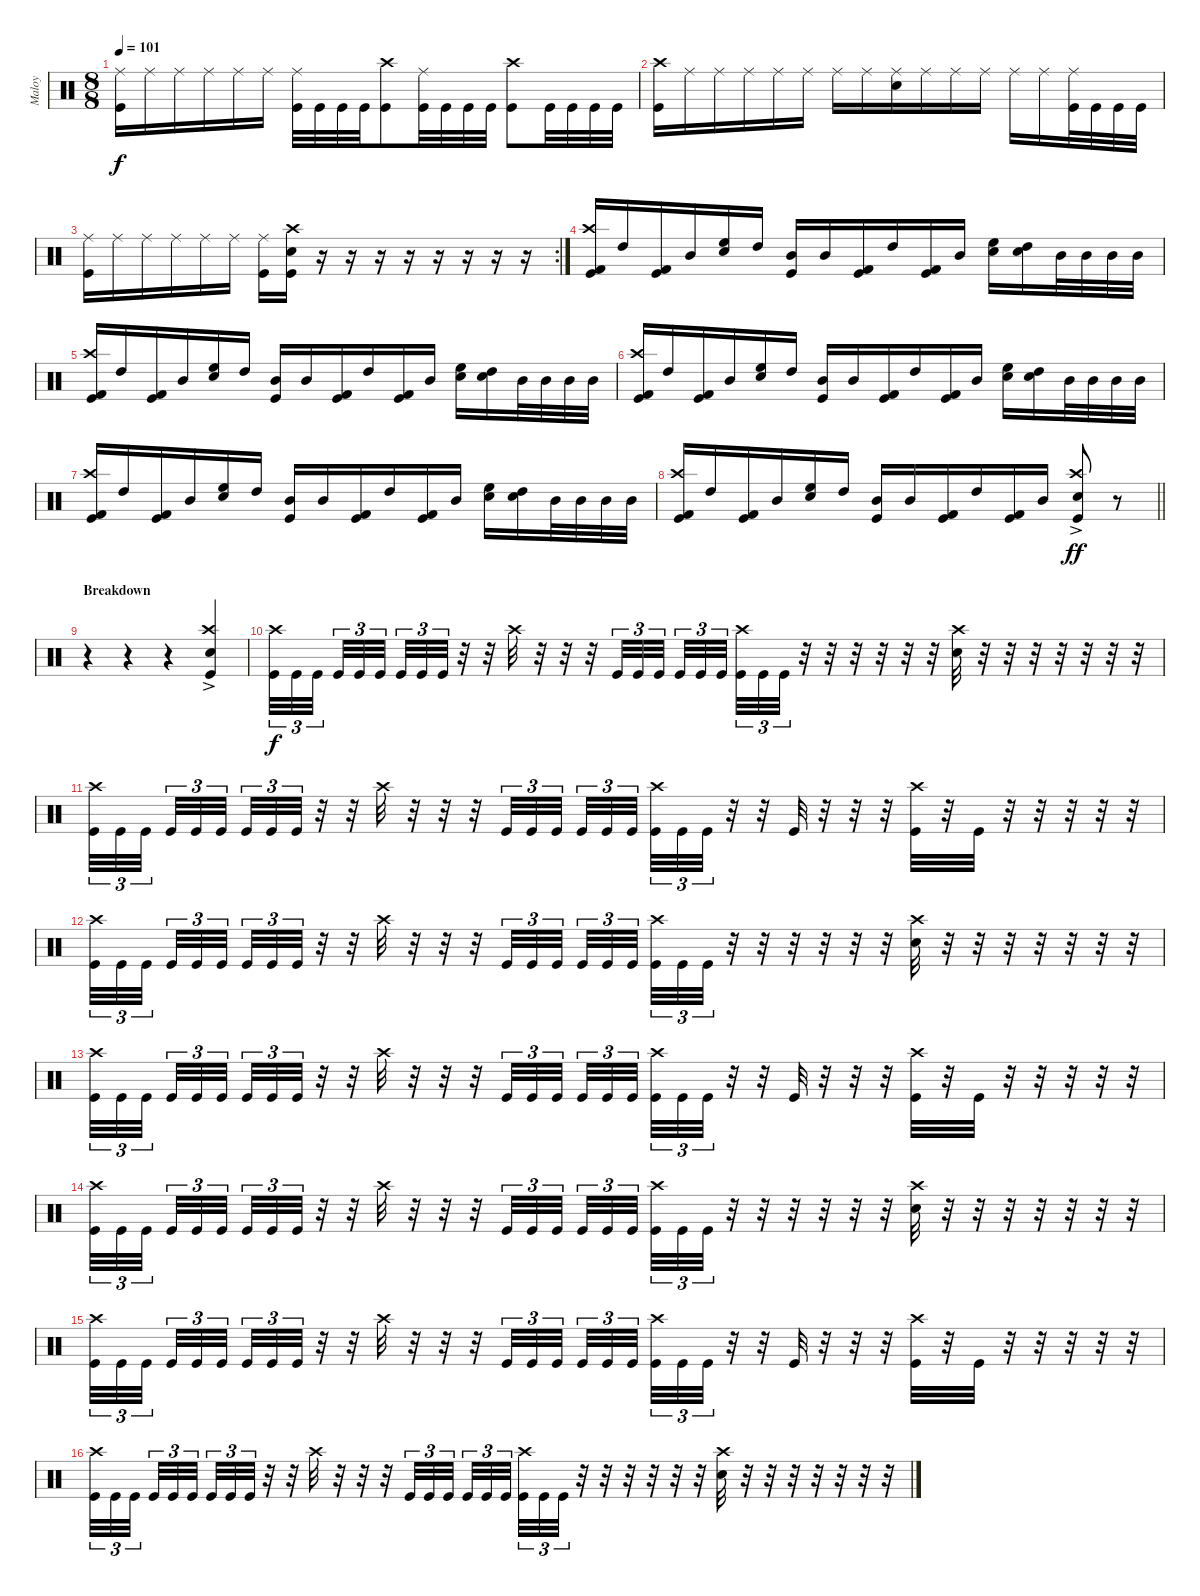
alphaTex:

\track ("Maloy" "Maloy") {instrument percussion}
\staff {score}
\articulation defaults
\ts (8 8)
\tempo 101
\clef neutral
\ks c
("Ride (middle)" "Kick (hit)").16{dy f} "Ride (middle)".16 "Ride (middle)".16 "Ride (middle)".16 "Ride (middle)".16 "Ride (middle)".16 ("Ride (middle)" "Kick (hit)").32 "Kick (hit)".32 "Kick (hit)".32 "Kick (hit)".32 ("Crash high (hit)" "Kick (hit)").8 ("Ride (middle)" "Kick (hit)").32 "Kick (hit)".32 "Kick (hit)".32 "Kick (hit)".32 ("Crash high (hit)" "Kick (hit)").8 "Kick (hit)".32 "Kick (hit)".32 "Kick (hit)".32 "Kick (hit)".32 |
("Crash high (hit)" "Kick (hit)").16 "Ride (middle)".16 "Ride (middle)".16 "Ride (middle)".16 "Ride (middle)".16 "Ride (middle)".16 "Ride (middle)".16 "Ride (middle)".16 ("Ride (middle)" "Snare (hit) 2").16 "Ride (middle)".16 "Ride (middle)".16 "Ride (middle)".16 "Ride (middle)".16 "Ride (middle)".16 ("Ride (middle)" "Kick (hit)").32 "Kick (hit)".32 "Kick (hit)".32 "Kick (hit)".32 |
\rc 2
("Ride (middle)" "Kick (hit)").16 "Ride (middle)".16 "Ride (middle)".16 "Ride (middle)".16 "Ride (middle)".16 "Ride (middle)".16 ("Ride (middle)" "Kick (hit)").16 ("Crash high (hit)" "Snare (hit) 2" "Kick (hit)").16 r.16 r.16 r.16 r.16 r.16 r.16 r.16 r.16 |
("Crash high (hit)" "Kick (hit)" "Kick (hit) 2").16 "High Tom (hit)".16 ("Kick (hit)" "Kick (hit) 2").16 "Mid Tom (hit)".16 ("Electric Snare (hit)" "High Floor Tom (hit)").16 "High Tom (hit)".16 ("Kick (hit)" "Mid Tom (hit)").16 "Mid Tom (hit)".16 ("Kick (hit)" "Kick (hit) 2").16 "High Tom (hit)".16 ("Kick (hit)" "Kick (hit) 2").16 "Mid Tom (hit)".16 ("Electric Snare (hit)" "High Floor Tom (hit)").16 ("Electric Snare (hit)" "High Tom (hit)").16 "Mid Tom (hit)".32 "Mid Tom (hit)".32 "Mid Tom (hit)".32 "Mid Tom (hit)".32 |
("Crash high (hit)" "Kick (hit)" "Kick (hit) 2").16 "High Tom (hit)".16 ("Kick (hit)" "Kick (hit) 2").16 "Mid Tom (hit)".16 ("Electric Snare (hit)" "High Floor Tom (hit)").16 "High Tom (hit)".16 ("Kick (hit)" "Mid Tom (hit)").16 "Mid Tom (hit)".16 ("Kick (hit)" "Kick (hit) 2").16 "High Tom (hit)".16 ("Kick (hit)" "Kick (hit) 2").16 "Mid Tom (hit)".16 ("Electric Snare (hit)" "High Floor Tom (hit)").16 ("Electric Snare (hit)" "High Tom (hit)").16 "Mid Tom (hit)".32 "Mid Tom (hit)".32 "Mid Tom (hit)".32 "Mid Tom (hit)".32 |
("Crash high (hit)" "Kick (hit)" "Kick (hit) 2").16 "High Tom (hit)".16 ("Kick (hit)" "Kick (hit) 2").16 "Mid Tom (hit)".16 ("Electric Snare (hit)" "High Floor Tom (hit)").16 "High Tom (hit)".16 ("Kick (hit)" "Mid Tom (hit)").16 "Mid Tom (hit)".16 ("Kick (hit)" "Kick (hit) 2").16 "High Tom (hit)".16 ("Kick (hit)" "Kick (hit) 2").16 "Mid Tom (hit)".16 ("Electric Snare (hit)" "High Floor Tom (hit)").16 ("Electric Snare (hit)" "High Tom (hit)").16 "Mid Tom (hit)".32 "Mid Tom (hit)".32 "Mid Tom (hit)".32 "Mid Tom (hit)".32 |
("Crash high (hit)" "Kick (hit)" "Kick (hit) 2").16 "High Tom (hit)".16 ("Kick (hit)" "Kick (hit) 2").16 "Mid Tom (hit)".16 ("Electric Snare (hit)" "High Floor Tom (hit)").16 "High Tom (hit)".16 ("Kick (hit)" "Mid Tom (hit)").16 "Mid Tom (hit)".16 ("Kick (hit)" "Kick (hit) 2").16 "High Tom (hit)".16 ("Kick (hit)" "Kick (hit) 2").16 "Mid Tom (hit)".16 ("Electric Snare (hit)" "High Floor Tom (hit)").16 ("Electric Snare (hit)" "High Tom (hit)").16 "Mid Tom (hit)".32 "Mid Tom (hit)".32 "Mid Tom (hit)".32 "Mid Tom (hit)".32 |
\barLineRight lightlight
("Crash high (hit)" "Kick (hit)" "Kick (hit) 2").16 "High Tom (hit)".16 ("Kick (hit)" "Kick (hit) 2").16 "Mid Tom (hit)".16 ("Electric Snare (hit)" "High Floor Tom (hit)").16 "High Tom (hit)".16 ("Kick (hit)" "Mid Tom (hit)").16 "Mid Tom (hit)".16 ("Kick (hit)" "Kick (hit) 2").16 "High Tom (hit)".16 ("Kick (hit)" "Kick (hit) 2").16 "Mid Tom (hit)".16 ("Kick (hit)" "Electric Snare (hit)" "Crash high (hit)"{ac}).8{dy ff} r.8 |
\section ("" "Breakdown")
r.4 r.4 r.4 ("Kick (hit)" "Electric Snare (hit)" "Crash high (hit)"{ac}).4 |
("Crash high (hit)" "Kick (hit)").32{tu (3 2) dy f} "Kick (hit)".32{tu (3 2)} "Kick (hit)".32{tu (3 2) beam splitsecondary} "Kick (hit)".32{tu (3 2)} "Kick (hit)".32{tu (3 2)} "Kick (hit)".32{tu (3 2)} "Kick (hit)".32{tu (3 2)} "Kick (hit)".32{tu (3 2)} "Kick (hit)".32{tu (3 2)} r.32 r.32 "Crash high (hit)".32 r.32 r.32 r.32 "Kick (hit)".32{tu (3 2)} "Kick (hit)".32{tu (3 2)} "Kick (hit)".32{tu (3 2) beam splitsecondary} "Kick (hit)".32{tu (3 2)} "Kick (hit)".32{tu (3 2)} "Kick (hit)".32{tu (3 2)} ("Crash high (hit)" "Kick (hit)").32{tu (3 2)} "Kick (hit)".32{tu (3 2)} "Kick (hit)".32{tu (3 2)} r.32 r.32 r.32 r.32 r.32 r.32 ("Crash high (hit)" "Electric Snare (hit)").32 r.32 r.32 r.32 r.32 r.32 r.32 r.32 |
("Crash high (hit)" "Kick (hit)").32{tu (3 2)} "Kick (hit)".32{tu (3 2)} "Kick (hit)".32{tu (3 2) beam splitsecondary} "Kick (hit)".32{tu (3 2)} "Kick (hit)".32{tu (3 2)} "Kick (hit)".32{tu (3 2)} "Kick (hit)".32{tu (3 2)} "Kick (hit)".32{tu (3 2)} "Kick (hit)".32{tu (3 2)} r.32 r.32 "Crash high (hit)".32 r.32 r.32 r.32 "Kick (hit)".32{tu (3 2)} "Kick (hit)".32{tu (3 2)} "Kick (hit)".32{tu (3 2) beam splitsecondary} "Kick (hit)".32{tu (3 2)} "Kick (hit)".32{tu (3 2)} "Kick (hit)".32{tu (3 2)} ("Crash high (hit)" "Kick (hit)").32{tu (3 2)} "Kick (hit)".32{tu (3 2)} "Kick (hit)".32{tu (3 2)} r.32 r.32 "Kick (hit)".32 r.32 r.32 r.32 ("Crash high (hit)" "Kick (hit)").32 r.32 "Kick (hit)".32 r.32 r.32 r.32 r.32 r.32 |
("Crash high (hit)" "Kick (hit)").32{tu (3 2)} "Kick (hit)".32{tu (3 2)} "Kick (hit)".32{tu (3 2) beam splitsecondary} "Kick (hit)".32{tu (3 2)} "Kick (hit)".32{tu (3 2)} "Kick (hit)".32{tu (3 2)} "Kick (hit)".32{tu (3 2)} "Kick (hit)".32{tu (3 2)} "Kick (hit)".32{tu (3 2)} r.32 r.32 "Crash high (hit)".32 r.32 r.32 r.32 "Kick (hit)".32{tu (3 2)} "Kick (hit)".32{tu (3 2)} "Kick (hit)".32{tu (3 2) beam splitsecondary} "Kick (hit)".32{tu (3 2)} "Kick (hit)".32{tu (3 2)} "Kick (hit)".32{tu (3 2)} ("Crash high (hit)" "Kick (hit)").32{tu (3 2)} "Kick (hit)".32{tu (3 2)} "Kick (hit)".32{tu (3 2)} r.32 r.32 r.32 r.32 r.32 r.32 ("Crash high (hit)" "Electric Snare (hit)").32 r.32 r.32 r.32 r.32 r.32 r.32 r.32 |
("Crash high (hit)" "Kick (hit)").32{tu (3 2)} "Kick (hit)".32{tu (3 2)} "Kick (hit)".32{tu (3 2) beam splitsecondary} "Kick (hit)".32{tu (3 2)} "Kick (hit)".32{tu (3 2)} "Kick (hit)".32{tu (3 2)} "Kick (hit)".32{tu (3 2)} "Kick (hit)".32{tu (3 2)} "Kick (hit)".32{tu (3 2)} r.32 r.32 "Crash high (hit)".32 r.32 r.32 r.32 "Kick (hit)".32{tu (3 2)} "Kick (hit)".32{tu (3 2)} "Kick (hit)".32{tu (3 2) beam splitsecondary} "Kick (hit)".32{tu (3 2)} "Kick (hit)".32{tu (3 2)} "Kick (hit)".32{tu (3 2)} ("Crash high (hit)" "Kick (hit)").32{tu (3 2)} "Kick (hit)".32{tu (3 2)} "Kick (hit)".32{tu (3 2)} r.32 r.32 "Kick (hit)".32 r.32 r.32 r.32 ("Crash high (hit)" "Kick (hit)").32 r.32 "Kick (hit)".32 r.32 r.32 r.32 r.32 r.32 |
("Crash high (hit)" "Kick (hit)").32{tu (3 2)} "Kick (hit)".32{tu (3 2)} "Kick (hit)".32{tu (3 2) beam splitsecondary} "Kick (hit)".32{tu (3 2)} "Kick (hit)".32{tu (3 2)} "Kick (hit)".32{tu (3 2)} "Kick (hit)".32{tu (3 2)} "Kick (hit)".32{tu (3 2)} "Kick (hit)".32{tu (3 2)} r.32 r.32 "Crash high (hit)".32 r.32 r.32 r.32 "Kick (hit)".32{tu (3 2)} "Kick (hit)".32{tu (3 2)} "Kick (hit)".32{tu (3 2) beam splitsecondary} "Kick (hit)".32{tu (3 2)} "Kick (hit)".32{tu (3 2)} "Kick (hit)".32{tu (3 2)} ("Crash high (hit)" "Kick (hit)").32{tu (3 2)} "Kick (hit)".32{tu (3 2)} "Kick (hit)".32{tu (3 2)} r.32 r.32 r.32 r.32 r.32 r.32 ("Crash high (hit)" "Electric Snare (hit)").32 r.32 r.32 r.32 r.32 r.32 r.32 r.32 |
("Crash high (hit)" "Kick (hit)").32{tu (3 2)} "Kick (hit)".32{tu (3 2)} "Kick (hit)".32{tu (3 2) beam splitsecondary} "Kick (hit)".32{tu (3 2)} "Kick (hit)".32{tu (3 2)} "Kick (hit)".32{tu (3 2)} "Kick (hit)".32{tu (3 2)} "Kick (hit)".32{tu (3 2)} "Kick (hit)".32{tu (3 2)} r.32 r.32 "Crash high (hit)".32 r.32 r.32 r.32 "Kick (hit)".32{tu (3 2)} "Kick (hit)".32{tu (3 2)} "Kick (hit)".32{tu (3 2) beam splitsecondary} "Kick (hit)".32{tu (3 2)} "Kick (hit)".32{tu (3 2)} "Kick (hit)".32{tu (3 2)} ("Crash high (hit)" "Kick (hit)").32{tu (3 2)} "Kick (hit)".32{tu (3 2)} "Kick (hit)".32{tu (3 2)} r.32 r.32 "Kick (hit)".32 r.32 r.32 r.32 ("Crash high (hit)" "Kick (hit)").32 r.32 "Kick (hit)".32 r.32 r.32 r.32 r.32 r.32 |
("Crash high (hit)" "Kick (hit)").32{tu (3 2)} "Kick (hit)".32{tu (3 2)} "Kick (hit)".32{tu (3 2) beam splitsecondary} "Kick (hit)".32{tu (3 2)} "Kick (hit)".32{tu (3 2)} "Kick (hit)".32{tu (3 2)} "Kick (hit)".32{tu (3 2)} "Kick (hit)".32{tu (3 2)} "Kick (hit)".32{tu (3 2)} r.32 r.32 "Crash high (hit)".32 r.32 r.32 r.32 "Kick (hit)".32{tu (3 2)} "Kick (hit)".32{tu (3 2)} "Kick (hit)".32{tu (3 2) beam splitsecondary} "Kick (hit)".32{tu (3 2)} "Kick (hit)".32{tu (3 2)} "Kick (hit)".32{tu (3 2)} ("Crash high (hit)" "Kick (hit)").32{tu (3 2)} "Kick (hit)".32{tu (3 2)} "Kick (hit)".32{tu (3 2)} r.32 r.32 r.32 r.32 r.32 r.32 ("Crash high (hit)" "Electric Snare (hit)").32 r.32 r.32 r.32 r.32 r.32 r.32 r.32
